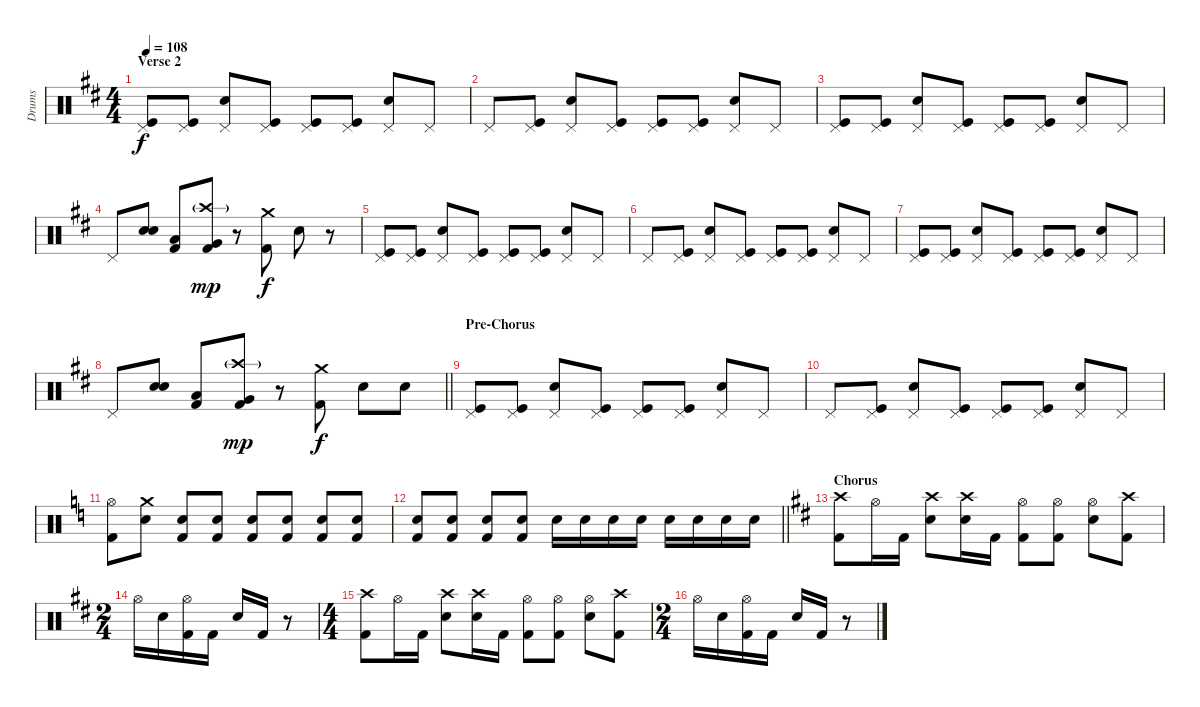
\track ("Drums" "Drums") {instrument percussion}
\staff {score}
\articulation defaults
\ts (4 4)
\section ("" "Verse 2")
\tempo 108
\clef neutral
\ks d
("Pedal Hi-Hat (hit)" "Kick (hit)").8{dy f} ("Pedal Hi-Hat (hit)" "Kick (hit)").8 ("Pedal Hi-Hat (hit)" "Electric Snare (hit)").8 ("Pedal Hi-Hat (hit)" "Kick (hit)").8 ("Pedal Hi-Hat (hit)" "Kick (hit)").8 ("Pedal Hi-Hat (hit)" "Kick (hit)").8 ("Pedal Hi-Hat (hit)" "Electric Snare (hit)").8 "Pedal Hi-Hat (hit)".8 |
"Pedal Hi-Hat (hit)".8 ("Pedal Hi-Hat (hit)" "Kick (hit)").8 ("Pedal Hi-Hat (hit)" "Electric Snare (hit)").8 ("Pedal Hi-Hat (hit)" "Kick (hit)").8 ("Pedal Hi-Hat (hit)" "Kick (hit)").8 ("Pedal Hi-Hat (hit)" "Kick (hit)").8 ("Pedal Hi-Hat (hit)" "Electric Snare (hit)").8 "Pedal Hi-Hat (hit)".8 |
("Pedal Hi-Hat (hit)" "Kick (hit)").8 ("Pedal Hi-Hat (hit)" "Kick (hit)").8 ("Pedal Hi-Hat (hit)" "Electric Snare (hit)").8 ("Pedal Hi-Hat (hit)" "Kick (hit)").8 ("Pedal Hi-Hat (hit)" "Kick (hit)").8 ("Pedal Hi-Hat (hit)" "Kick (hit)").8 ("Pedal Hi-Hat (hit)" "Electric Snare (hit)").8 "Pedal Hi-Hat (hit)".8 |
"Pedal Hi-Hat (hit)".8 ("Snare (hit) 2" "Snare (hit) 2").8 ("Low Tom (hit)" "Kick (hit) 2").8 ("Crash high (hit)"{g} "Very Low Tom (hit)" "Kick (hit) 2").8{dy mp} r.8 ("Crash medium (hit)" "Kick (hit) 2").8{dy f} "Snare (hit) 2".8 r.8 |
("Pedal Hi-Hat (hit)" "Kick (hit)").8 ("Pedal Hi-Hat (hit)" "Kick (hit)").8 ("Pedal Hi-Hat (hit)" "Electric Snare (hit)").8 ("Pedal Hi-Hat (hit)" "Kick (hit)").8 ("Pedal Hi-Hat (hit)" "Kick (hit)").8 ("Pedal Hi-Hat (hit)" "Kick (hit)").8 ("Pedal Hi-Hat (hit)" "Electric Snare (hit)").8 "Pedal Hi-Hat (hit)".8 |
"Pedal Hi-Hat (hit)".8 ("Pedal Hi-Hat (hit)" "Kick (hit)").8 ("Pedal Hi-Hat (hit)" "Electric Snare (hit)").8 ("Pedal Hi-Hat (hit)" "Kick (hit)").8 ("Pedal Hi-Hat (hit)" "Kick (hit)").8 ("Pedal Hi-Hat (hit)" "Kick (hit)").8 ("Pedal Hi-Hat (hit)" "Electric Snare (hit)").8 "Pedal Hi-Hat (hit)".8 |
("Pedal Hi-Hat (hit)" "Kick (hit)").8 ("Pedal Hi-Hat (hit)" "Kick (hit)").8 ("Pedal Hi-Hat (hit)" "Electric Snare (hit)").8 ("Pedal Hi-Hat (hit)" "Kick (hit)").8 ("Pedal Hi-Hat (hit)" "Kick (hit)").8 ("Pedal Hi-Hat (hit)" "Kick (hit)").8 ("Pedal Hi-Hat (hit)" "Electric Snare (hit)").8 "Pedal Hi-Hat (hit)".8 |
\barLineRight lightlight "Pedal Hi-Hat (hit)".8
("Snare (hit) 2" "Snare (hit) 2").8 ("Low Tom (hit)" "Kick (hit) 2").8 ("Crash high (hit)"{g} "Very Low Tom (hit)" "Kick (hit) 2").8{dy mp} r.8 ("Crash medium (hit)" "Kick (hit) 2").8{dy f} "Snare (hit) 2".8 "Snare (hit) 2".8 |
\section ("" "Pre-Chorus")
("Pedal Hi-Hat (hit)" "Kick (hit)").8 ("Pedal Hi-Hat (hit)" "Kick (hit)").8 ("Pedal Hi-Hat (hit)" "Electric Snare (hit)").8 ("Pedal Hi-Hat (hit)" "Kick (hit)").8 ("Pedal Hi-Hat (hit)" "Kick (hit)").8 ("Pedal Hi-Hat (hit)" "Kick (hit)").8 ("Pedal Hi-Hat (hit)" "Electric Snare (hit)").8 "Pedal Hi-Hat (hit)".8 |
"Pedal Hi-Hat (hit)".8 ("Pedal Hi-Hat (hit)" "Kick (hit)").8 ("Pedal Hi-Hat (hit)" "Electric Snare (hit)").8 ("Pedal Hi-Hat (hit)" "Kick (hit)").8 ("Pedal Hi-Hat (hit)" "Kick (hit)").8 ("Pedal Hi-Hat (hit)" "Kick (hit)").8 ("Pedal Hi-Hat (hit)" "Electric Snare (hit)").8 "Pedal Hi-Hat (hit)".8 |
\ks c
("Hi-Hat (open)" "Kick (hit) 2").8 ("Crash medium (hit)" "Snare (hit) 2").8 ("Snare (hit) 2" "Kick (hit) 2").8 ("Snare (hit) 2" "Kick (hit) 2").8 ("Snare (hit) 2" "Kick (hit) 2").8 ("Snare (hit) 2" "Kick (hit) 2").8 ("Snare (hit) 2" "Kick (hit) 2").8 ("Snare (hit) 2" "Kick (hit) 2").8 |
\barLineRight lightlight
("Snare (hit) 2" "Kick (hit) 2").8 ("Snare (hit) 2" "Kick (hit) 2").8 ("Snare (hit) 2" "Kick (hit) 2").8 ("Snare (hit) 2" "Kick (hit) 2").8 "Snare (hit) 2".16 "Snare (hit) 2".16 "Snare (hit) 2".16 "Snare (hit) 2".16 "Snare (hit) 2".16 "Snare (hit) 2".16 "Snare (hit) 2".16 "Snare (hit) 2".16 |
\section ("" "Chorus")
\ks d
("Crash high (hit)" "Kick (hit) 2").8 "Hi-Hat (open)".16 "Kick (hit) 2".16 ("Crash high (hit)" "Snare (hit) 2").8 ("Crash high (hit)" "Snare (hit) 2").16 "Kick (hit) 2".16 ("Hi-Hat (open)" "Kick (hit) 2").8 ("Hi-Hat (open)" "Kick (hit) 2").8 ("Hi-Hat (open)" "Snare (hit) 2").8 ("Crash high (hit)" "Kick (hit) 2").8 |
\ts (2 4)
"Hi-Hat (open)".16 "Snare (hit) 2".16 ("Hi-Hat (open)" "Kick (hit) 2").16 "Kick (hit) 2".16 "Snare (hit) 2".16 "Kick (hit) 2".16 r.8 |
\ts (4 4)
("Crash high (hit)" "Kick (hit) 2").8 "Hi-Hat (open)".16 "Kick (hit) 2".16 ("Crash high (hit)" "Snare (hit) 2").8 ("Crash high (hit)" "Snare (hit) 2").16 "Kick (hit) 2".16 ("Hi-Hat (open)" "Kick (hit) 2").8 ("Hi-Hat (open)" "Kick (hit) 2").8 ("Hi-Hat (open)" "Snare (hit) 2").8 ("Crash high (hit)" "Kick (hit) 2").8 |
\ts (2 4)
"Hi-Hat (open)".16 "Snare (hit) 2".16 ("Hi-Hat (open)" "Kick (hit) 2").16 "Kick (hit) 2".16 "Snare (hit) 2".16 "Kick (hit) 2".16 r.8
